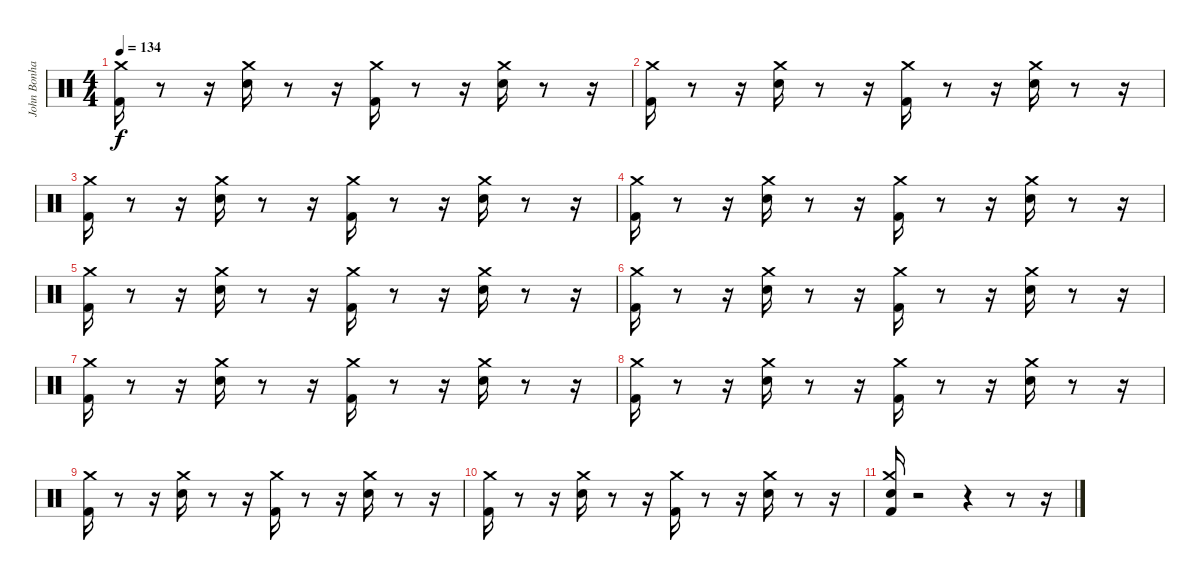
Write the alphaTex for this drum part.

\track ("John Bonham - Drums" "John Bonha") {instrument percussion}
\staff {score}
\articulation defaults
\ts (4 4)
\tempo 134
\clef neutral
\ks c
("Kick (hit) 2" "Crash medium (hit)").16{dy f} r.8 r.16 ("Snare (hit) 2" "Crash medium (hit)").16 r.8 r.16 ("Kick (hit) 2" "Crash medium (hit)").16 r.8 r.16 ("Snare (hit) 2" "Crash medium (hit)").16 r.8 r.16 |
("Kick (hit) 2" "Crash medium (hit)").16 r.8 r.16 ("Snare (hit) 2" "Crash medium (hit)").16 r.8 r.16 ("Kick (hit) 2" "Crash medium (hit)").16 r.8 r.16 ("Snare (hit) 2" "Crash medium (hit)").16 r.8 r.16 |
("Kick (hit) 2" "Crash medium (hit)").16 r.8 r.16 ("Snare (hit) 2" "Crash medium (hit)").16 r.8 r.16 ("Kick (hit) 2" "Crash medium (hit)").16 r.8 r.16 ("Snare (hit) 2" "Crash medium (hit)").16 r.8 r.16 |
("Kick (hit) 2" "Crash medium (hit)").16 r.8 r.16 ("Snare (hit) 2" "Crash medium (hit)").16 r.8 r.16 ("Kick (hit) 2" "Crash medium (hit)").16 r.8 r.16 ("Snare (hit) 2" "Crash medium (hit)").16 r.8 r.16 |
("Kick (hit) 2" "Crash medium (hit)").16 r.8 r.16 ("Snare (hit) 2" "Crash medium (hit)").16 r.8 r.16 ("Kick (hit) 2" "Crash medium (hit)").16 r.8 r.16 ("Snare (hit) 2" "Crash medium (hit)").16 r.8 r.16 |
("Kick (hit) 2" "Crash medium (hit)").16 r.8 r.16 ("Snare (hit) 2" "Crash medium (hit)").16 r.8 r.16 ("Kick (hit) 2" "Crash medium (hit)").16 r.8 r.16 ("Snare (hit) 2" "Crash medium (hit)").16 r.8 r.16 |
("Kick (hit) 2" "Crash medium (hit)").16 r.8 r.16 ("Snare (hit) 2" "Crash medium (hit)").16 r.8 r.16 ("Kick (hit) 2" "Crash medium (hit)").16 r.8 r.16 ("Snare (hit) 2" "Crash medium (hit)").16 r.8 r.16 |
("Kick (hit) 2" "Crash medium (hit)").16 r.8 r.16 ("Snare (hit) 2" "Crash medium (hit)").16 r.8 r.16 ("Kick (hit) 2" "Crash medium (hit)").16 r.8 r.16 ("Snare (hit) 2" "Crash medium (hit)").16 r.8 r.16 |
("Kick (hit) 2" "Crash medium (hit)").16 r.8 r.16 ("Snare (hit) 2" "Crash medium (hit)").16 r.8 r.16 ("Kick (hit) 2" "Crash medium (hit)").16 r.8 r.16 ("Snare (hit) 2" "Crash medium (hit)").16 r.8 r.16 |
("Kick (hit) 2" "Crash medium (hit)").16 r.8 r.16 ("Snare (hit) 2" "Crash medium (hit)").16 r.8 r.16 ("Kick (hit) 2" "Crash medium (hit)").16 r.8 r.16 ("Snare (hit) 2" "Crash medium (hit)").16 r.8 r.16 |
("Kick (hit) 2" "Snare (hit) 2" "Crash medium (hit)").16 r.2 r.4 r.8 r.16
